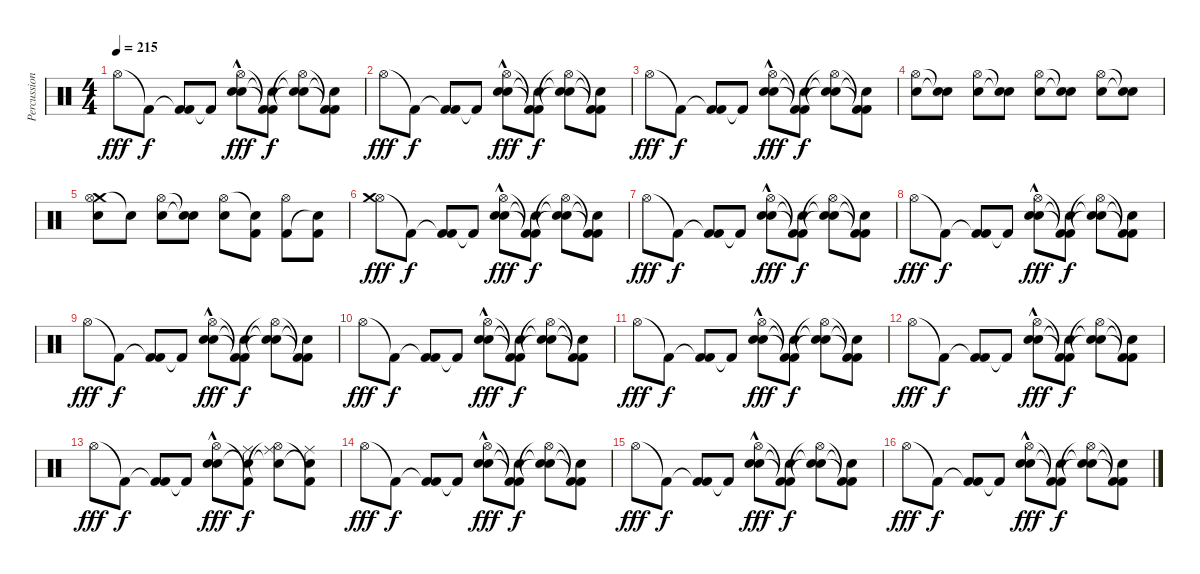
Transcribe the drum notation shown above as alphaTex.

\track ("Percussion" "Percussion") {instrument percussion}
\staff {score}
\articulation defaults
\ts (4 4)
\tempo 215
\clef neutral
\ks c "Hi-Hat (open)".8{dy fff} "Kick (hit) 2"{t}.8{dy f}
("Kick (hit) 2"{t} "Kick (hit) 2").8 "Kick (hit) 2"{t}.8 ("Snare (hit) 2"{hac} "Hi-Hat (open)"{hac} "Electric Snare (hit)").8{dy fff} ("Kick (hit) 2"{t} "Kick (hit) 2"{t} "Snare (hit)"{t}).8{dy f} ("Snare (hit)"{t} "Hi-Hat (open)"{t} "Snare (hit)"{t}).8 ("Kick (hit) 2"{t} "Kick (hit) 2"{t} "Snare (hit)"{t}).8 |
"Hi-Hat (open)".8{dy fff} "Kick (hit) 2"{t}.8{dy f} ("Kick (hit) 2"{t} "Kick (hit) 2").8 "Kick (hit) 2"{t}.8 ("Snare (hit) 2"{hac} "Hi-Hat (open)"{hac} "Electric Snare (hit)").8{dy fff} ("Kick (hit) 2"{t} "Kick (hit) 2"{t} "Snare (hit)"{t}).8{dy f} ("Snare (hit)"{t} "Hi-Hat (open)"{t} "Snare (hit)"{t}).8 ("Kick (hit) 2"{t} "Kick (hit) 2"{t} "Snare (hit)"{t}).8 |
"Hi-Hat (open)".8{dy fff} "Kick (hit) 2"{t}.8{dy f} ("Kick (hit) 2"{t} "Kick (hit) 2").8 "Kick (hit) 2"{t}.8 ("Snare (hit) 2"{hac} "Hi-Hat (open)"{hac} "Electric Snare (hit)").8{dy fff} ("Kick (hit) 2"{t} "Kick (hit) 2"{t} "Snare (hit)"{t}).8{dy f} ("Snare (hit)"{t} "Hi-Hat (open)"{t} "Snare (hit)"{t}).8 ("Kick (hit) 2"{t} "Kick (hit) 2"{t} "Electric Snare (hit)"{t}).8 |
("Electric Snare (hit)" "Hi-Hat (open)").8 ("Snare (hit)"{t} "Snare (hit)"{t}).8 ("Electric Snare (hit)" "Hi-Hat (open)").8 ("Snare (hit)"{t} "Snare (hit)"{t}).8 ("Electric Snare (hit)" "Hi-Hat (open)").8 ("Snare (hit)"{t} "Snare (hit)"{t}).8 ("Electric Snare (hit)" "Hi-Hat (open)").8 ("Snare (hit)"{t} "Snare (hit)"{t}).8 |
("Crash medium (hit)" "Hi-Hat (open)" "Snare (hit) 2").8 "Snare (hit)"{t}.8 ("Electric Snare (hit)" "Hi-Hat (open)").8 ("Snare (hit)"{t} "Snare (hit)"{t}).8 ("Hi-Hat (open)" "Electric Snare (hit)").8 ("Snare (hit)"{t} "Kick (hit) 2").8 ("Kick (hit) 2" "Hi-Hat (open)").8 ("Snare (hit)"{t} "Kick (hit) 2").8 |
("Hi-Hat (open)" "Crash medium (hit)").8{dy fff} "Kick (hit) 2"{t}.8{dy f} ("Kick (hit) 2"{t} "Kick (hit) 2").8 "Kick (hit) 2"{t}.8 ("Snare (hit) 2"{hac} "Hi-Hat (open)"{hac} "Electric Snare (hit)").8{dy fff} ("Kick (hit) 2"{t} "Kick (hit) 2"{t} "Snare (hit)"{t}).8{dy f} ("Snare (hit)"{t} "Hi-Hat (open)"{t} "Snare (hit)"{t}).8 ("Kick (hit) 2"{t} "Kick (hit) 2"{t} "Snare (hit)"{t}).8 |
"Hi-Hat (open)".8{dy fff} "Kick (hit) 2"{t}.8{dy f} ("Kick (hit) 2"{t} "Kick (hit) 2").8 "Kick (hit) 2"{t}.8 ("Snare (hit) 2"{hac} "Hi-Hat (open)"{hac} "Electric Snare (hit)").8{dy fff} ("Kick (hit) 2"{t} "Kick (hit) 2"{t} "Snare (hit)"{t}).8{dy f} ("Snare (hit)"{t} "Hi-Hat (open)"{t} "Snare (hit)"{t}).8 ("Kick (hit) 2"{t} "Kick (hit) 2"{t} "Snare (hit)"{t}).8 |
"Hi-Hat (open)".8{dy fff} "Kick (hit) 2"{t}.8{dy f} ("Kick (hit) 2"{t} "Kick (hit) 2").8 "Kick (hit) 2"{t}.8 ("Snare (hit) 2"{hac} "Hi-Hat (open)"{hac} "Electric Snare (hit)").8{dy fff} ("Kick (hit) 2"{t} "Kick (hit) 2"{t} "Snare (hit)"{t}).8{dy f} ("Snare (hit)"{t} "Hi-Hat (open)"{t} "Snare (hit)"{t}).8 ("Kick (hit) 2"{t} "Kick (hit) 2"{t} "Snare (hit)"{t}).8 |
"Hi-Hat (open)".8{dy fff} "Kick (hit) 2"{t}.8{dy f} ("Kick (hit) 2"{t} "Kick (hit) 2").8 "Kick (hit) 2"{t}.8 ("Snare (hit) 2"{hac} "Hi-Hat (open)"{hac} "Electric Snare (hit)").8{dy fff} ("Kick (hit) 2"{t} "Kick (hit) 2"{t} "Snare (hit)"{t}).8{dy f} ("Snare (hit)"{t} "Hi-Hat (open)"{t} "Snare (hit)"{t}).8 ("Kick (hit) 2"{t} "Kick (hit) 2"{t} "Snare (hit)"{t}).8 |
"Hi-Hat (open)".8{dy fff} "Kick (hit) 2"{t}.8{dy f} ("Kick (hit) 2"{t} "Kick (hit) 2").8 "Kick (hit) 2"{t}.8 ("Snare (hit) 2"{hac} "Hi-Hat (open)"{hac} "Electric Snare (hit)").8{dy fff} ("Kick (hit) 2"{t} "Kick (hit) 2"{t} "Snare (hit)"{t}).8{dy f} ("Snare (hit)"{t} "Hi-Hat (open)"{t} "Snare (hit)"{t}).8 ("Kick (hit) 2"{t} "Kick (hit) 2"{t} "Snare (hit)"{t}).8 |
"Hi-Hat (open)".8{dy fff} "Kick (hit) 2"{t}.8{dy f} ("Kick (hit) 2"{t} "Kick (hit) 2").8 "Kick (hit) 2"{t}.8 ("Snare (hit) 2"{hac} "Hi-Hat (open)"{hac} "Electric Snare (hit)").8{dy fff} ("Kick (hit) 2"{t} "Kick (hit) 2"{t} "Snare (hit)"{t}).8{dy f} ("Snare (hit)"{t} "Hi-Hat (open)"{t} "Snare (hit)"{t}).8 ("Kick (hit) 2"{t} "Kick (hit) 2"{t} "Snare (hit)"{t}).8 |
"Hi-Hat (open)".8{dy fff} "Kick (hit) 2"{t}.8{dy f} ("Kick (hit) 2"{t} "Kick (hit) 2").8 "Kick (hit) 2"{t}.8 ("Snare (hit) 2"{hac} "Hi-Hat (open)"{hac} "Electric Snare (hit)").8{dy fff} ("Kick (hit) 2"{t} "Kick (hit) 2"{t} "Snare (hit)"{t}).8{dy f} ("Snare (hit)"{t} "Hi-Hat (open)"{t} "Snare (hit)"{t}).8 ("Kick (hit) 2"{t} "Kick (hit) 2"{t} "Snare (hit)"{t}).8 |
"Hi-Hat (open)".8{dy fff} "Kick (hit) 2"{t}.8{dy f} ("Kick (hit) 2"{t} "Kick (hit) 2").8 "Kick (hit) 2"{t}.8 ("Snare (hit) 2"{hac} "Hi-Hat (open)"{hac} "Electric Snare (hit)").8{dy fff} ("Ride (middle)" "Kick (hit) 2"{t} "Snare (hit)"{t}).8{dy f} ("Ride (middle)" "Hi-Hat (open)"{t} "Snare (hit)"{t}).8 ("Ride (middle)" "Kick (hit) 2"{t} "Snare (hit)"{t}).8 |
"Hi-Hat (open)".8{dy fff} "Kick (hit) 2"{t}.8{dy f} ("Kick (hit) 2"{t} "Kick (hit) 2").8 "Kick (hit) 2"{t}.8 ("Snare (hit) 2"{hac} "Hi-Hat (open)"{hac} "Electric Snare (hit)").8{dy fff} ("Kick (hit) 2"{t} "Kick (hit) 2"{t} "Snare (hit)"{t}).8{dy f} ("Snare (hit)"{t} "Hi-Hat (open)"{t} "Snare (hit)"{t}).8 ("Kick (hit) 2"{t} "Kick (hit) 2"{t} "Snare (hit)"{t}).8 |
"Hi-Hat (open)".8{dy fff} "Kick (hit) 2"{t}.8{dy f} ("Kick (hit) 2"{t} "Kick (hit) 2").8 "Kick (hit) 2"{t}.8 ("Snare (hit) 2"{hac} "Hi-Hat (open)"{hac} "Electric Snare (hit)").8{dy fff} ("Kick (hit) 2"{t} "Kick (hit) 2"{t} "Snare (hit)"{t}).8{dy f} ("Snare (hit)"{t} "Hi-Hat (open)"{t} "Snare (hit)"{t}).8 ("Kick (hit) 2"{t} "Kick (hit) 2"{t} "Snare (hit)"{t}).8 |
"Hi-Hat (open)".8{dy fff} "Kick (hit) 2"{t}.8{dy f} ("Kick (hit) 2"{t} "Kick (hit) 2").8 "Kick (hit) 2"{t}.8 ("Snare (hit) 2"{hac} "Hi-Hat (open)"{hac} "Electric Snare (hit)").8{dy fff} ("Kick (hit) 2"{t} "Kick (hit) 2"{t} "Snare (hit)"{t}).8{dy f} ("Snare (hit)"{t} "Hi-Hat (open)"{t} "Snare (hit)"{t}).8 ("Kick (hit) 2"{t} "Kick (hit) 2"{t} "Snare (hit)"{t}).8
